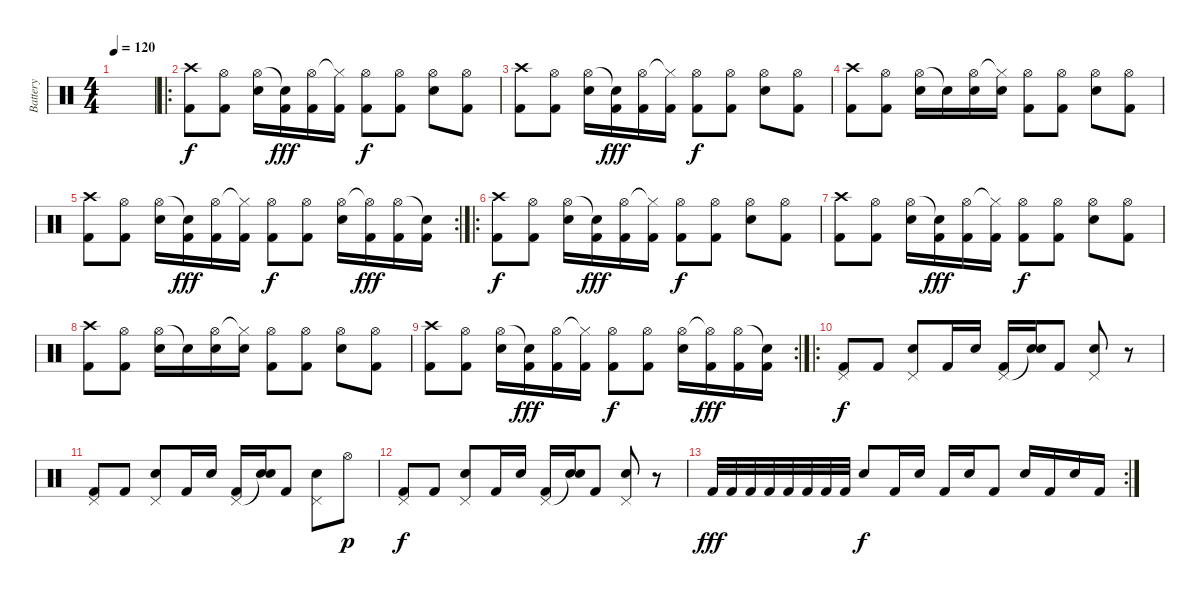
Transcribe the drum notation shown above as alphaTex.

\track ("Battery" "Battery") {instrument percussion}
\staff {score}
\articulation defaults
\ts (4 4)
\tempo 120
\clef neutral
\ks c
|
\ro
("Crash high (hit)" "Kick (hit) 2").8 ("Hi-Hat (open)" "Kick (hit) 2").8 ("Hi-Hat (open)" "Electric Snare (hit)").16 ("Snare (hit)"{t} "Kick (hit) 2").16{dy fff} ("Hi-Hat (open)" "Kick (hit) 2").16 ("Hi-Hat (closed)"{t} "Kick (hit) 2").16 ("Hi-Hat (open)" "Kick (hit) 2").8{dy f} ("Hi-Hat (open)" "Kick (hit) 2").8 ("Hi-Hat (open)" "Electric Snare (hit)").8 ("Hi-Hat (open)" "Kick (hit) 2").8 |
("Crash high (hit)" "Kick (hit) 2").8 ("Hi-Hat (open)" "Kick (hit) 2").8 ("Hi-Hat (open)" "Electric Snare (hit)").16 ("Snare (hit)"{t} "Kick (hit) 2").16{dy fff} ("Hi-Hat (open)" "Kick (hit) 2").16 ("Hi-Hat (closed)"{t} "Kick (hit) 2").16 ("Hi-Hat (open)" "Kick (hit) 2").8{dy f} ("Hi-Hat (open)" "Kick (hit) 2").8 ("Hi-Hat (open)" "Electric Snare (hit)").8 ("Hi-Hat (open)" "Kick (hit) 2").8 |
("Crash high (hit)" "Kick (hit) 2").8 ("Hi-Hat (open)" "Kick (hit) 2").8 ("Hi-Hat (open)" "Electric Snare (hit)").16 "Snare (hit)"{t}.16 ("Hi-Hat (open)" "Electric Snare (hit)").16 ("Hi-Hat (closed)"{t} "Electric Snare (hit)").16 ("Hi-Hat (open)" "Kick (hit) 2").8 ("Hi-Hat (open)" "Kick (hit) 2").8 ("Hi-Hat (open)" "Electric Snare (hit)").8 ("Hi-Hat (open)" "Kick (hit) 2").8 |
\rc 2
("Crash high (hit)" "Kick (hit) 2").8 ("Hi-Hat (open)" "Kick (hit) 2").8 ("Hi-Hat (open)" "Electric Snare (hit)").16 ("Snare (hit)"{t} "Kick (hit) 2").16{dy fff} ("Hi-Hat (open)" "Kick (hit) 2").16 ("Hi-Hat (closed)"{t} "Kick (hit) 2").16 ("Hi-Hat (open)" "Kick (hit) 2").8{dy f} ("Hi-Hat (open)" "Kick (hit) 2").8 ("Hi-Hat (open)" "Electric Snare (hit)").16 ("Hi-Hat (open)"{t} "Kick (hit) 2").16{dy fff} ("Hi-Hat (open)" "Kick (hit) 2").16 ("Snare (hit)"{t} "Kick (hit) 2").16 |
\ro
("Crash high (hit)" "Kick (hit) 2").8{dy f} ("Hi-Hat (open)" "Kick (hit) 2").8 ("Hi-Hat (open)" "Electric Snare (hit)").16 ("Snare (hit)"{t} "Kick (hit) 2").16{dy fff} ("Hi-Hat (open)" "Kick (hit) 2").16 ("Hi-Hat (closed)"{t} "Kick (hit) 2").16 ("Hi-Hat (open)" "Kick (hit) 2").8{dy f} ("Hi-Hat (open)" "Kick (hit) 2").8 ("Hi-Hat (open)" "Electric Snare (hit)").8 ("Hi-Hat (open)" "Kick (hit) 2").8 |
("Crash high (hit)" "Kick (hit) 2").8 ("Hi-Hat (open)" "Kick (hit) 2").8 ("Hi-Hat (open)" "Electric Snare (hit)").16 ("Snare (hit)"{t} "Kick (hit) 2").16{dy fff} ("Hi-Hat (open)" "Kick (hit) 2").16 ("Hi-Hat (closed)"{t} "Kick (hit) 2").16 ("Hi-Hat (open)" "Kick (hit) 2").8{dy f} ("Hi-Hat (open)" "Kick (hit) 2").8 ("Hi-Hat (open)" "Electric Snare (hit)").8 ("Hi-Hat (open)" "Kick (hit) 2").8 |
("Crash high (hit)" "Kick (hit) 2").8 ("Hi-Hat (open)" "Kick (hit) 2").8 ("Hi-Hat (open)" "Electric Snare (hit)").16 "Snare (hit)"{t}.16 ("Hi-Hat (open)" "Electric Snare (hit)").16 ("Hi-Hat (closed)"{t} "Electric Snare (hit)").16 ("Hi-Hat (open)" "Kick (hit) 2").8 ("Hi-Hat (open)" "Kick (hit) 2").8 ("Hi-Hat (open)" "Electric Snare (hit)").8 ("Hi-Hat (open)" "Kick (hit) 2").8 |
\rc 2
("Crash high (hit)" "Kick (hit) 2").8 ("Hi-Hat (open)" "Kick (hit) 2").8 ("Hi-Hat (open)" "Electric Snare (hit)").16 ("Snare (hit)"{t} "Kick (hit) 2").16{dy fff} ("Hi-Hat (open)" "Kick (hit) 2").16 ("Hi-Hat (closed)"{t} "Kick (hit) 2").16 ("Hi-Hat (open)" "Kick (hit) 2").8{dy f} ("Hi-Hat (open)" "Kick (hit) 2").8 ("Hi-Hat (open)" "Electric Snare (hit)").16 ("Hi-Hat (open)"{t} "Kick (hit) 2").16{dy fff} ("Hi-Hat (open)" "Kick (hit) 2").16 ("Snare (hit)"{t} "Kick (hit) 2").16 |
\ro
("Pedal Hi-Hat (hit)" "Kick (hit) 2").8{dy f} "Kick (hit) 2".8 ("Pedal Hi-Hat (hit)" "Electric Snare (hit)").8 "Kick (hit) 2".16 "Electric Snare (hit)".16 ("Pedal Hi-Hat (hit)" "Kick (hit) 2").16 ("Snare (hit)"{t} "Electric Snare (hit)").16 "Kick (hit) 2".8 ("Pedal Hi-Hat (hit)" "Electric Snare (hit)").8 r.8 |
("Pedal Hi-Hat (hit)" "Kick (hit) 2").8 "Kick (hit) 2".8 ("Pedal Hi-Hat (hit)" "Electric Snare (hit)").8 "Kick (hit) 2".16 "Electric Snare (hit)".16 ("Pedal Hi-Hat (hit)" "Kick (hit) 2").16 ("Snare (hit)"{t} "Electric Snare (hit)").16 "Kick (hit) 2".8 ("Pedal Hi-Hat (hit)" "Electric Snare (hit)").8 "Hi-Hat (open)".8{dy p} |
("Pedal Hi-Hat (hit)" "Kick (hit) 2").8{dy f} "Kick (hit) 2".8 ("Pedal Hi-Hat (hit)" "Electric Snare (hit)").8 "Kick (hit) 2".16 "Electric Snare (hit)".16 ("Pedal Hi-Hat (hit)" "Kick (hit) 2").16 ("Snare (hit)"{t} "Electric Snare (hit)").16 "Kick (hit) 2".8 ("Pedal Hi-Hat (hit)" "Electric Snare (hit)").8 r.8 |
\rc 2 "Kick (hit) 2".32{dy fff} "Kick (hit) 2".32 "Kick (hit) 2".32 "Kick (hit) 2".32 "Kick (hit) 2".32 "Kick (hit) 2".32 "Kick (hit) 2".32 "Kick (hit) 2".32 "Electric Snare (hit)".8{dy f} "Kick (hit) 2".16 "Electric Snare (hit)".16 "Kick (hit) 2".16 "Electric Snare (hit)".16 "Kick (hit) 2".8 "Electric Snare (hit)".16 "Kick (hit) 2".16 "Electric Snare (hit)".16 "Kick (hit) 2".16
